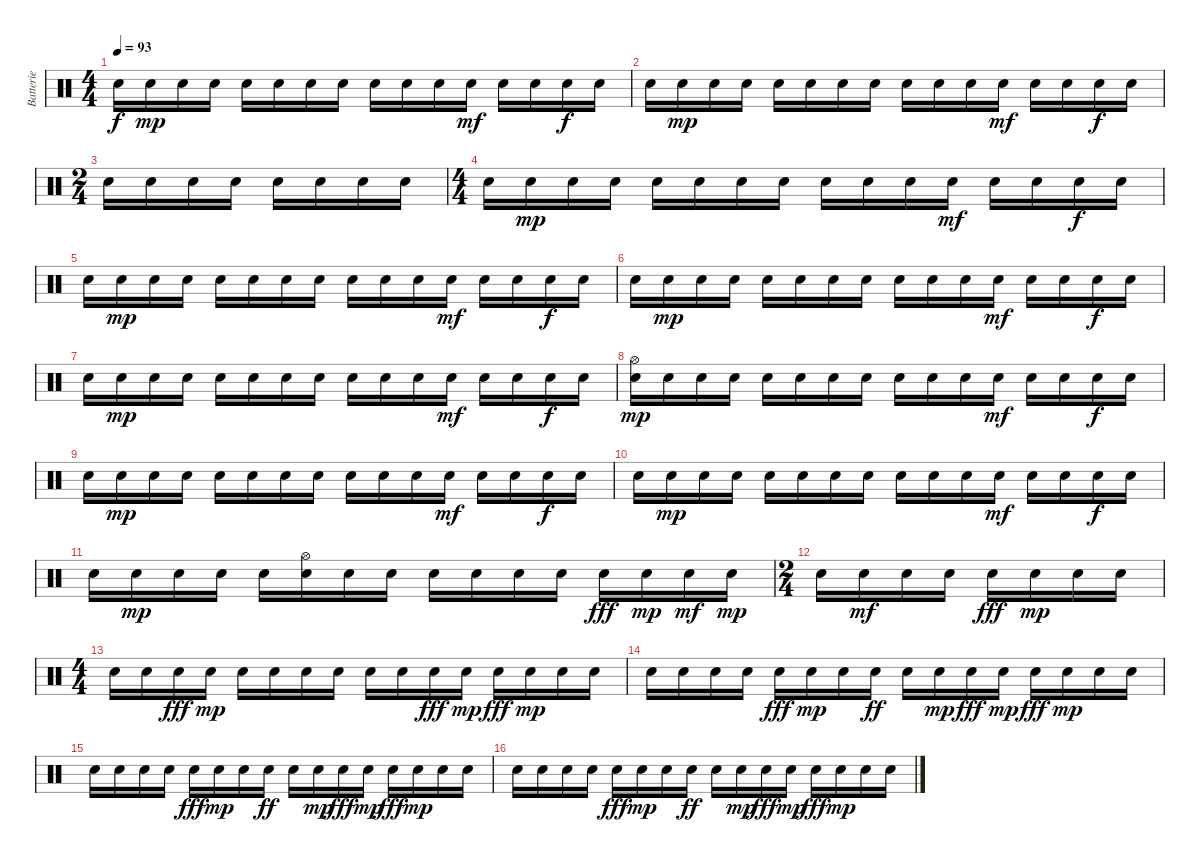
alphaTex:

\track ("Batterie" "Batterie") {instrument percussion}
\staff {score}
\articulation defaults
\ts (4 4)
\tempo 93
\clef neutral
\ks c "Snare (hit) 2".16{dy f} "Snare (hit) 2".16{dy mp} "Snare (hit) 2".16 "Snare (hit) 2".16 "Snare (hit) 2".16 "Snare (hit) 2".16 "Snare (hit) 2".16 "Snare (hit) 2".16 "Snare (hit) 2".16 "Snare (hit) 2".16 "Snare (hit) 2".16 "Snare (hit) 2".16{dy mf} "Snare (hit) 2".16 "Snare (hit) 2".16 "Snare (hit) 2".16{dy f} "Snare (hit) 2".16
|
"Snare (hit) 2".16 "Snare (hit) 2".16{dy mp} "Snare (hit) 2".16 "Snare (hit) 2".16 "Snare (hit) 2".16 "Snare (hit) 2".16 "Snare (hit) 2".16 "Snare (hit) 2".16 "Snare (hit) 2".16 "Snare (hit) 2".16 "Snare (hit) 2".16 "Snare (hit) 2".16{dy mf} "Snare (hit) 2".16 "Snare (hit) 2".16 "Snare (hit) 2".16{dy f} "Snare (hit) 2".16 |
\ts (2 4)
"Snare (hit) 2".16 "Snare (hit) 2".16 "Snare (hit) 2".16 "Snare (hit) 2".16 "Snare (hit) 2".16 "Snare (hit) 2".16 "Snare (hit) 2".16 "Snare (hit) 2".16 |
\ts (4 4)
"Snare (hit) 2".16 "Snare (hit) 2".16{dy mp} "Snare (hit) 2".16 "Snare (hit) 2".16 "Snare (hit) 2".16 "Snare (hit) 2".16 "Snare (hit) 2".16 "Snare (hit) 2".16 "Snare (hit) 2".16 "Snare (hit) 2".16 "Snare (hit) 2".16 "Snare (hit) 2".16{dy mf} "Snare (hit) 2".16 "Snare (hit) 2".16 "Snare (hit) 2".16{dy f} "Snare (hit) 2".16 |
"Snare (hit) 2".16 "Snare (hit) 2".16{dy mp} "Snare (hit) 2".16 "Snare (hit) 2".16 "Snare (hit) 2".16 "Snare (hit) 2".16 "Snare (hit) 2".16 "Snare (hit) 2".16 "Snare (hit) 2".16 "Snare (hit) 2".16 "Snare (hit) 2".16 "Snare (hit) 2".16{dy mf} "Snare (hit) 2".16 "Snare (hit) 2".16 "Snare (hit) 2".16{dy f} "Snare (hit) 2".16 |
"Snare (hit) 2".16 "Snare (hit) 2".16{dy mp} "Snare (hit) 2".16 "Snare (hit) 2".16 "Snare (hit) 2".16 "Snare (hit) 2".16 "Snare (hit) 2".16 "Snare (hit) 2".16 "Snare (hit) 2".16 "Snare (hit) 2".16 "Snare (hit) 2".16 "Snare (hit) 2".16{dy mf} "Snare (hit) 2".16 "Snare (hit) 2".16 "Snare (hit) 2".16{dy f} "Snare (hit) 2".16 |
"Snare (hit) 2".16 "Snare (hit) 2".16{dy mp} "Snare (hit) 2".16 "Snare (hit) 2".16 "Snare (hit) 2".16 "Snare (hit) 2".16 "Snare (hit) 2".16 "Snare (hit) 2".16 "Snare (hit) 2".16 "Snare (hit) 2".16 "Snare (hit) 2".16 "Snare (hit) 2".16{dy mf} "Snare (hit) 2".16 "Snare (hit) 2".16 "Snare (hit) 2".16{dy f} "Snare (hit) 2".16 |
("Hi-Hat (open)" "Snare (hit) 2").16{dy mp} "Snare (hit) 2".16 "Snare (hit) 2".16 "Snare (hit) 2".16 "Snare (hit) 2".16 "Snare (hit) 2".16 "Snare (hit) 2".16 "Snare (hit) 2".16 "Snare (hit) 2".16 "Snare (hit) 2".16 "Snare (hit) 2".16 "Snare (hit) 2".16{dy mf} "Snare (hit) 2".16 "Snare (hit) 2".16 "Snare (hit) 2".16{dy f} "Snare (hit) 2".16 |
"Snare (hit) 2".16 "Snare (hit) 2".16{dy mp} "Snare (hit) 2".16 "Snare (hit) 2".16 "Snare (hit) 2".16 "Snare (hit) 2".16 "Snare (hit) 2".16 "Snare (hit) 2".16 "Snare (hit) 2".16 "Snare (hit) 2".16 "Snare (hit) 2".16 "Snare (hit) 2".16{dy mf} "Snare (hit) 2".16 "Snare (hit) 2".16 "Snare (hit) 2".16{dy f} "Snare (hit) 2".16 |
"Snare (hit) 2".16 "Snare (hit) 2".16{dy mp} "Snare (hit) 2".16 "Snare (hit) 2".16 "Snare (hit) 2".16 "Snare (hit) 2".16 "Snare (hit) 2".16 "Snare (hit) 2".16 "Snare (hit) 2".16 "Snare (hit) 2".16 "Snare (hit) 2".16 "Snare (hit) 2".16{dy mf} "Snare (hit) 2".16 "Snare (hit) 2".16 "Snare (hit) 2".16{dy f} "Snare (hit) 2".16 |
"Snare (hit) 2".16 "Snare (hit) 2".16{dy mp} "Snare (hit) 2".16 "Snare (hit) 2".16 "Snare (hit) 2".16 ("Hi-Hat (open)" "Snare (hit) 2").16 "Snare (hit) 2".16 "Snare (hit) 2".16 "Snare (hit) 2".16 "Snare (hit) 2".16 "Snare (hit) 2".16 "Snare (hit) 2".16 "Snare (hit) 2".16{dy fff} "Snare (hit) 2".16{dy mp} "Snare (hit) 2".16{dy mf} "Snare (hit) 2".16{dy mp} |
\ts (2 4)
"Snare (hit) 2".16 "Snare (hit) 2".16{dy mf} "Snare (hit) 2".16 "Snare (hit) 2".16 "Snare (hit) 2".16{dy fff} "Snare (hit) 2".16{dy mp} "Snare (hit) 2".16 "Snare (hit) 2".16 |
\ts (4 4)
"Snare (hit) 2".16 "Snare (hit) 2".16 "Snare (hit) 2".16{dy fff} "Snare (hit) 2".16{dy mp} "Snare (hit) 2".16 "Snare (hit) 2".16 "Snare (hit) 2".16 "Snare (hit) 2".16 "Snare (hit) 2".16 "Snare (hit) 2".16 "Snare (hit) 2".16{dy fff} "Snare (hit) 2".16{dy mp} "Snare (hit) 2".16{dy fff} "Snare (hit) 2".16{dy mp} "Snare (hit) 2".16 "Snare (hit) 2".16 |
"Snare (hit) 2".16 "Snare (hit) 2".16 "Snare (hit) 2".16 "Snare (hit) 2".16 "Snare (hit) 2".16{dy fff} "Snare (hit) 2".16{dy mp} "Snare (hit) 2".16 "Snare (hit) 2".16{dy ff} "Snare (hit) 2".16 "Snare (hit) 2".16{dy mp} "Snare (hit) 2".16{dy fff} "Snare (hit) 2".16{dy mp} "Snare (hit) 2".16{dy fff} "Snare (hit) 2".16{dy mp} "Snare (hit) 2".16 "Snare (hit) 2".16 |
"Snare (hit) 2".16 "Snare (hit) 2".16 "Snare (hit) 2".16 "Snare (hit) 2".16 "Snare (hit) 2".16{dy fff} "Snare (hit) 2".16{dy mp} "Snare (hit) 2".16 "Snare (hit) 2".16{dy ff} "Snare (hit) 2".16 "Snare (hit) 2".16{dy mp} "Snare (hit) 2".16{dy fff} "Snare (hit) 2".16{dy mp} "Snare (hit) 2".16{dy fff} "Snare (hit) 2".16{dy mp} "Snare (hit) 2".16 "Snare (hit) 2".16 |
"Snare (hit) 2".16 "Snare (hit) 2".16 "Snare (hit) 2".16 "Snare (hit) 2".16 "Snare (hit) 2".16{dy fff} "Snare (hit) 2".16{dy mp} "Snare (hit) 2".16 "Snare (hit) 2".16{dy ff} "Snare (hit) 2".16 "Snare (hit) 2".16{dy mp} "Snare (hit) 2".16{dy fff} "Snare (hit) 2".16{dy mp} "Snare (hit) 2".16{dy fff} "Snare (hit) 2".16{dy mp} "Snare (hit) 2".16 "Snare (hit) 2".16
